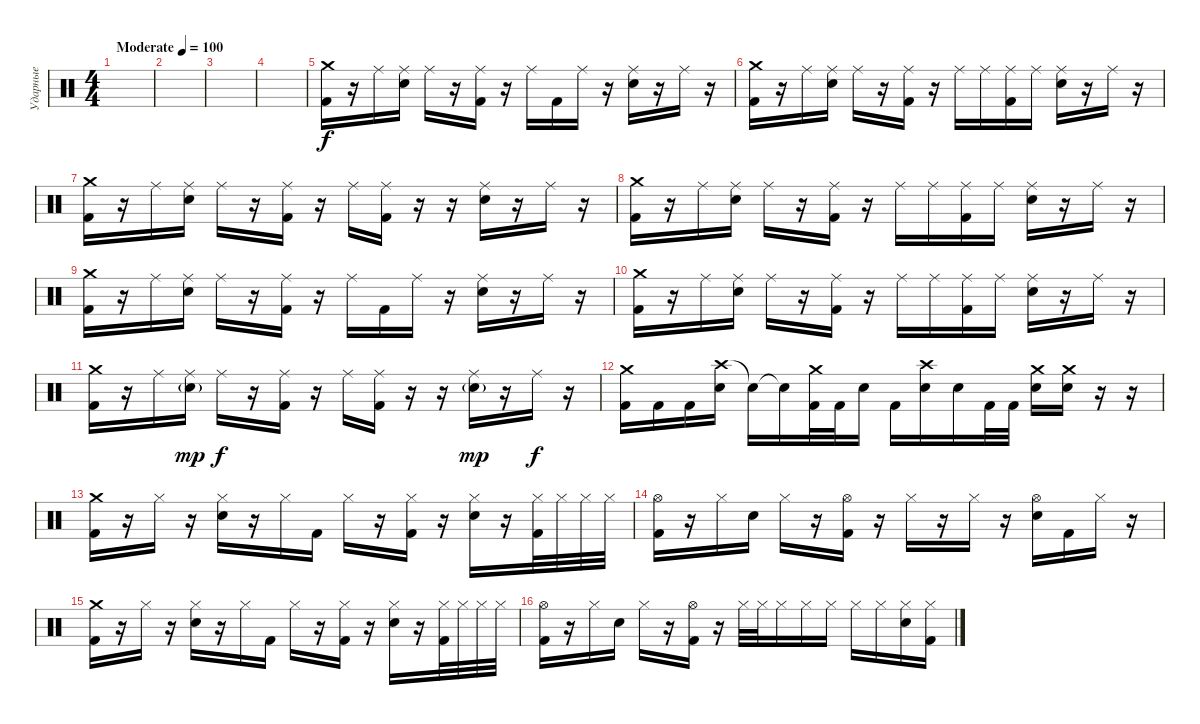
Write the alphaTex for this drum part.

\track ("Ударные" "Ударные") {instrument percussion}
\staff {score}
\articulation defaults
\ts (4 4)
\tempo (100 "Moderate")
\clef neutral
\ks c
|
|
|
|
("Crash medium (hit)" "Kick (hit) 2").16 r.16 "Ride (middle)".16 ("Ride (middle)" "Electric Snare (hit)").16 "Ride (middle)".16 r.16 ("Ride (middle)" "Kick (hit) 2").16 r.16 "Ride (middle)".16 "Kick (hit) 2".16 "Ride (middle)".16 r.16 ("Ride (middle)" "Electric Snare (hit)").16 r.16 "Ride (middle)".16 r.16 |
("Crash medium (hit)" "Kick (hit) 2").16 r.16 "Ride (middle)".16 ("Ride (middle)" "Electric Snare (hit)").16 "Ride (middle)".16 r.16 ("Ride (middle)" "Kick (hit) 2").16 r.16 "Ride (middle)".16 "Ride (middle)".16 ("Ride (middle)" "Kick (hit) 2").16 "Ride (middle)".16 ("Ride (middle)" "Electric Snare (hit)").16 r.16 "Ride (middle)".16 r.16 |
("Crash medium (hit)" "Kick (hit) 2").16 r.16 "Ride (middle)".16 ("Ride (middle)" "Electric Snare (hit)").16 "Ride (middle)".16 r.16 ("Ride (middle)" "Kick (hit) 2").16 r.16 "Ride (middle)".16 ("Ride (middle)" "Kick (hit) 2").16 r.16 r.16 ("Ride (middle)" "Electric Snare (hit)").16 r.16 "Ride (middle)".16 r.16 |
("Crash medium (hit)" "Kick (hit) 2").16 r.16 "Ride (middle)".16 ("Ride (middle)" "Electric Snare (hit)").16 "Ride (middle)".16 r.16 ("Ride (middle)" "Kick (hit) 2").16 r.16 "Ride (middle)".16 "Ride (middle)".16 ("Ride (middle)" "Kick (hit) 2").16 "Ride (middle)".16 ("Ride (middle)" "Electric Snare (hit)").16 r.16 "Ride (middle)".16 r.16 |
("Crash medium (hit)" "Kick (hit) 2").16 r.16 "Ride (middle)".16 ("Ride (middle)" "Electric Snare (hit)").16 "Ride (middle)".16 r.16 ("Ride (middle)" "Kick (hit) 2").16 r.16 "Ride (middle)".16 "Kick (hit) 2".16 "Ride (middle)".16 r.16 ("Ride (middle)" "Electric Snare (hit)").16 r.16 "Ride (middle)".16 r.16 |
("Crash medium (hit)" "Kick (hit) 2").16 r.16 "Ride (middle)".16 ("Ride (middle)" "Electric Snare (hit)").16 "Ride (middle)".16 r.16 ("Ride (middle)" "Kick (hit) 2").16 r.16 "Ride (middle)".16 "Ride (middle)".16 ("Ride (middle)" "Kick (hit) 2").16 "Ride (middle)".16 ("Ride (middle)" "Electric Snare (hit)").16 r.16 "Ride (middle)".16 r.16 |
("Crash medium (hit)" "Kick (hit) 2").16 r.16 "Ride (middle)".16 ("Ride (middle)" "Electric Snare (hit)"{g}).16{dy mp} "Ride (middle)".16{dy f} r.16 ("Ride (middle)" "Kick (hit) 2").16 r.16 "Ride (middle)".16 ("Ride (middle)" "Kick (hit) 2").16 r.16 r.16 ("Ride (middle)" "Electric Snare (hit)"{g}).16{dy mp} r.16 "Ride (middle)".16{dy f} r.16 |
("Crash medium (hit)" "Kick (hit) 2").16 "Kick (hit) 2".16 "Kick (hit) 2".16 ("Crash high (hit)" "Electric Snare (hit)").16 "Snare (hit)"{t}.16 "Snare (hit)"{t}.16 ("Crash medium (hit)" "Kick (hit) 2").32 "Kick (hit) 2".32 "Electric Snare (hit)".16 "Kick (hit) 2".16 ("Crash high (hit)" "Electric Snare (hit)").16 "Electric Snare (hit)".16 "Kick (hit) 2".32 "Kick (hit) 2".32 ("Crash medium (hit)" "Electric Snare (hit)").16 ("Crash medium (hit)" "Electric Snare (hit)").16 r.16 r.16 |
("Crash medium (hit)" "Kick (hit) 2").16 r.16 "Hi-Hat (closed)".16 r.16 ("Hi-Hat (closed)" "Electric Snare (hit)").16 r.16 "Hi-Hat (closed)".16 "Kick (hit) 2".16 "Hi-Hat (closed)".16 r.16 ("Hi-Hat (closed)" "Kick (hit) 2").16 r.16 ("Hi-Hat (closed)" "Electric Snare (hit)").16 r.16 ("Hi-Hat (closed)" "Kick (hit) 2").32 "Hi-Hat (closed)".32 "Hi-Hat (closed)".32 "Hi-Hat (closed)".32 |
("Hi-Hat (open)" "Kick (hit) 2").16 r.16 "Hi-Hat (closed)".16 "Electric Snare (hit)".16 "Hi-Hat (closed)".16 r.16 ("Hi-Hat (open)" "Kick (hit) 2").16 r.16 "Hi-Hat (closed)".16 r.16 "Hi-Hat (closed)".16 r.16 ("Hi-Hat (open)" "Electric Snare (hit)").16 "Kick (hit) 2".16 "Hi-Hat (closed)".16 r.16 |
("Crash medium (hit)" "Kick (hit) 2").16 r.16 "Hi-Hat (closed)".16 r.16 ("Hi-Hat (closed)" "Electric Snare (hit)").16 r.16 "Hi-Hat (closed)".16 "Kick (hit) 2".16 "Hi-Hat (closed)".16 r.16 ("Hi-Hat (closed)" "Kick (hit) 2").16 r.16 ("Hi-Hat (closed)" "Electric Snare (hit)").16 r.16 ("Hi-Hat (closed)" "Kick (hit) 2").32 "Hi-Hat (closed)".32 "Hi-Hat (closed)".32 "Hi-Hat (closed)".32 |
("Hi-Hat (open)" "Kick (hit) 2").16 r.16 "Hi-Hat (closed)".16 "Electric Snare (hit)".16 "Hi-Hat (closed)".16 r.16 ("Hi-Hat (open)" "Kick (hit) 2").16 r.16 "Hi-Hat (closed)".32 "Hi-Hat (closed)".32 "Hi-Hat (closed)".16 "Hi-Hat (closed)".16 "Hi-Hat (closed)".16 "Hi-Hat (closed)".16 "Hi-Hat (closed)".16 ("Hi-Hat (closed)" "Electric Snare (hit)").16 ("Hi-Hat (closed)" "Kick (hit) 2").16
